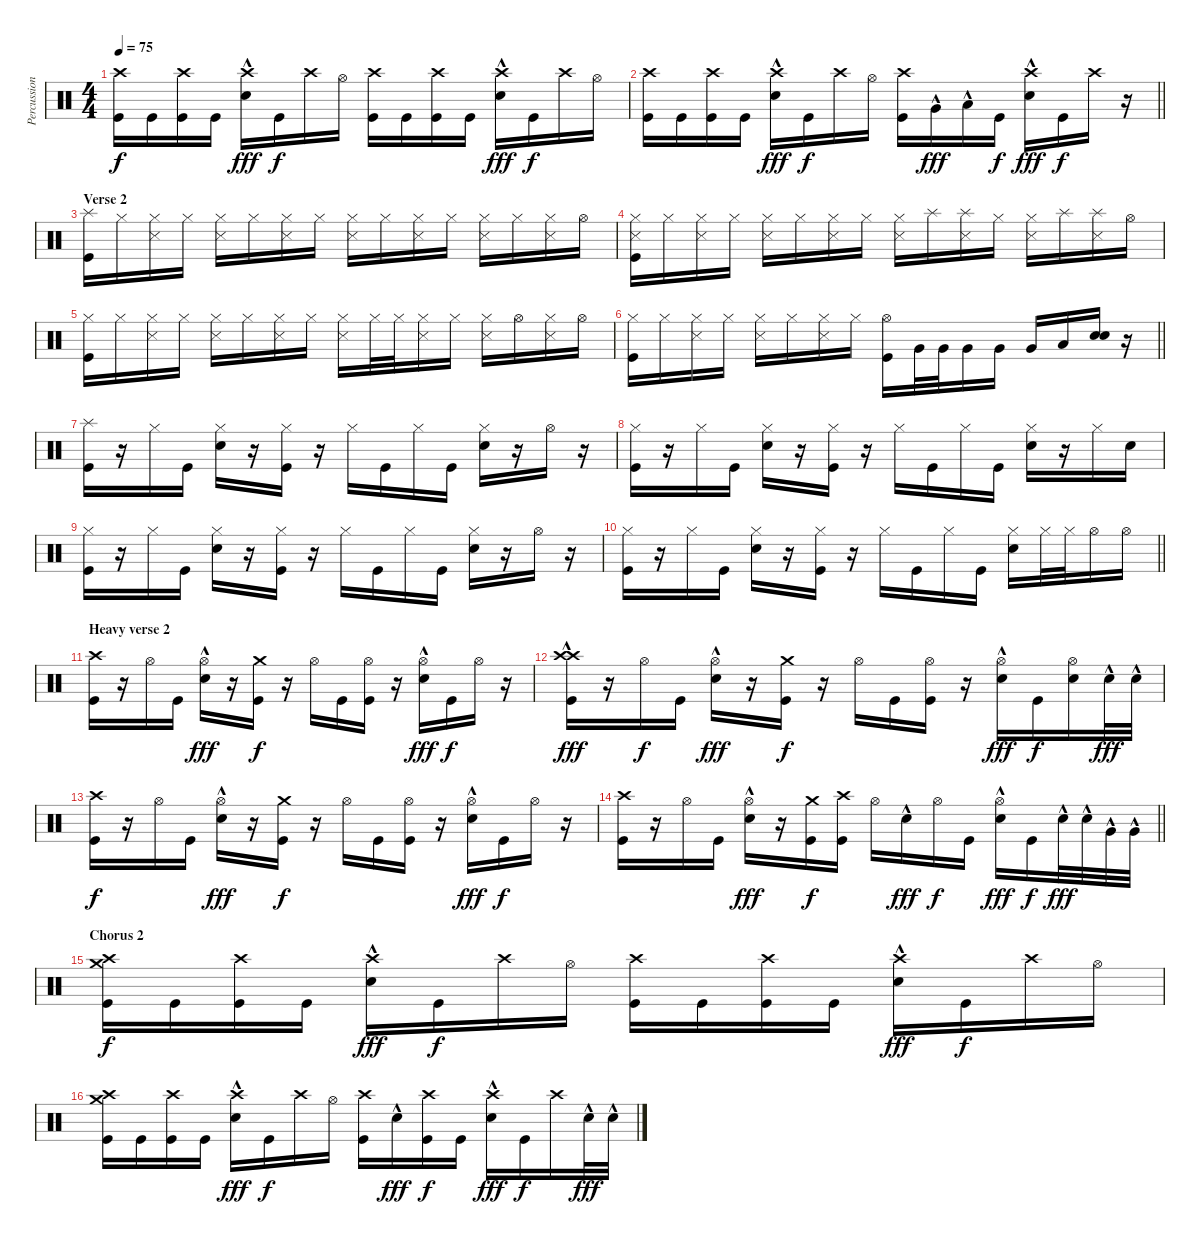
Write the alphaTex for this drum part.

\track ("Percussion" "Percussion") {instrument percussion}
\staff {score}
\articulation defaults
\ts (4 4)
\tempo 75
\clef neutral
\ks c
("Crash high (hit)" "Kick (hit)").16{dy f} "Kick (hit)".16 ("Crash high (hit)" "Kick (hit)").16 "Kick (hit)".16 ("Crash high (hit)" "Electric Snare (hit)"{hac}).16{dy fff} "Kick (hit)".16{dy f} "Crash high (hit)".16 "Hi-Hat (open)".16 ("Crash high (hit)" "Kick (hit)").16 "Kick (hit)".16 ("Crash high (hit)" "Kick (hit)").16 "Kick (hit)".16 ("Crash high (hit)" "Electric Snare (hit)"{hac}).16{dy fff} "Kick (hit)".16{dy f} "Crash high (hit)".16 "Hi-Hat (open)".16 |
\barLineRight lightlight
("Crash high (hit)" "Kick (hit)").16 "Kick (hit)".16 ("Crash high (hit)" "Kick (hit)").16 "Kick (hit)".16 ("Crash high (hit)" "Electric Snare (hit)"{hac}).16{dy fff} "Kick (hit)".16{dy f} "Crash high (hit)".16 "Hi-Hat (open)".16 ("Crash high (hit)" "Kick (hit)").16 "Very Low Tom (hit)"{hac}.16{dy fff} "Low Floor Tom (hit)"{hac}.16 "Kick (hit)".16{dy f} ("Crash high (hit)" "Electric Snare (hit)"{hac}).16{dy fff} "Kick (hit)".16{dy f} "Crash high (hit)".16 r.16 |
\section ("" "Verse 2")
("Splash (hit)" "Kick (hit)").16 "Hi-Hat (closed)".16 ("Hi-Hat (closed)" "Snare (side stick) 3").16 "Hi-Hat (closed)".16 ("Hi-Hat (closed)" "Snare (side stick) 3").16 "Hi-Hat (closed)".16 ("Hi-Hat (closed)" "Snare (side stick) 3").16 "Hi-Hat (closed)".16 ("Hi-Hat (closed)" "Snare (side stick) 3").16 "Hi-Hat (closed)".16 ("Hi-Hat (closed)" "Snare (side stick) 3").16 "Hi-Hat (closed)".16 ("Hi-Hat (closed)" "Snare (side stick) 3").16 "Hi-Hat (closed)".16 ("Hi-Hat (closed)" "Snare (side stick) 3").16 "Hi-Hat (open)".16 |
("Snare (side stick) 3" "Hi-Hat (closed)" "Kick (hit)").16 "Hi-Hat (closed)".16 ("Hi-Hat (closed)" "Snare (side stick) 3").16 "Hi-Hat (closed)".16 ("Hi-Hat (closed)" "Snare (side stick) 3").16 "Hi-Hat (closed)".16 ("Hi-Hat (closed)" "Snare (side stick) 3").16 "Hi-Hat (closed)".16 ("Hi-Hat (closed)" "Snare (side stick) 3").16 "Splash (hit)".16 ("Splash (hit)" "Snare (side stick) 3").16 "Hi-Hat (closed)".16 ("Hi-Hat (closed)" "Snare (side stick) 3").16 "Splash (hit)".16 ("Splash (hit)" "Snare (side stick) 3").16 "Hi-Hat (open)".16 |
("Hi-Hat (closed)" "Kick (hit)").16 "Hi-Hat (closed)".16 ("Hi-Hat (closed)" "Snare (side stick) 3").16 "Hi-Hat (closed)".16 ("Hi-Hat (closed)" "Snare (side stick) 3").16 "Hi-Hat (closed)".16 ("Hi-Hat (closed)" "Snare (side stick) 3").16 "Hi-Hat (closed)".16 ("Hi-Hat (closed)" "Snare (side stick) 3").16 "Hi-Hat (closed)".32 "Hi-Hat (closed)".32 ("Hi-Hat (closed)" "Snare (side stick) 3").16 "Hi-Hat (closed)".16 ("Hi-Hat (closed)" "Snare (side stick) 3").16 "Hi-Hat (open)".16 ("Hi-Hat (closed)" "Snare (side stick) 3").16 "Hi-Hat (open)".16 |
\barLineRight lightlight
("Hi-Hat (closed)" "Kick (hit)").16 "Hi-Hat (closed)".16 ("Hi-Hat (closed)" "Snare (side stick) 3").16 "Hi-Hat (closed)".16 ("Hi-Hat (closed)" "Snare (side stick) 3").16 "Hi-Hat (closed)".16 ("Hi-Hat (closed)" "Snare (side stick) 3").16 "Hi-Hat (closed)".16 ("Hi-Hat (open)" "Kick (hit)").16 "Very Low Tom (hit)".32 "Very Low Tom (hit)".32 "Very Low Tom (hit)".16 "Very Low Tom (hit)".16 "Very Low Tom (hit)".16 "Low Floor Tom (hit)".16 ("Electric Snare (hit)" "Electric Snare (hit)").16 r.16 |
("Splash (hit)" "Kick (hit)").16 r.16 "Hi-Hat (closed)".16 "Kick (hit)".16 ("Hi-Hat (closed)" "Electric Snare (hit)").16 r.16 ("Hi-Hat (closed)" "Kick (hit)").16 r.16 "Hi-Hat (closed)".16 "Kick (hit)".16 "Hi-Hat (closed)".16 "Kick (hit)".16 ("Hi-Hat (closed)" "Electric Snare (hit)").16 r.16 "Hi-Hat (open)".16 r.16 |
("Hi-Hat (closed)" "Kick (hit)").16 r.16 "Hi-Hat (closed)".16 "Kick (hit)".16 ("Hi-Hat (closed)" "Electric Snare (hit)").16 r.16 ("Hi-Hat (closed)" "Kick (hit)").16 r.16 "Hi-Hat (closed)".16 "Kick (hit)".16 "Hi-Hat (closed)".16 "Kick (hit)".16 ("Hi-Hat (closed)" "Electric Snare (hit)").16 r.16 "Hi-Hat (closed)".16 "Electric Snare (hit)".16 |
("Hi-Hat (closed)" "Kick (hit)").16 r.16 "Hi-Hat (closed)".16 "Kick (hit)".16 ("Hi-Hat (closed)" "Electric Snare (hit)").16 r.16 ("Hi-Hat (closed)" "Kick (hit)").16 r.16 "Hi-Hat (closed)".16 "Kick (hit)".16 "Hi-Hat (closed)".16 "Kick (hit)".16 ("Hi-Hat (closed)" "Electric Snare (hit)").16 r.16 "Hi-Hat (open)".16 r.16 |
\barLineRight lightlight
("Hi-Hat (closed)" "Kick (hit)").16 r.16 "Hi-Hat (closed)".16 "Kick (hit)".16 ("Hi-Hat (closed)" "Electric Snare (hit)").16 r.16 ("Hi-Hat (closed)" "Kick (hit)").16 r.16 "Hi-Hat (closed)".16 "Kick (hit)".16 "Hi-Hat (closed)".16 "Kick (hit)".16 ("Hi-Hat (closed)" "Electric Snare (hit)").16 "Hi-Hat (closed)".32 "Hi-Hat (closed)".32 "Hi-Hat (open)".16 "Hi-Hat (open)".16 |
\section ("" "Heavy verse 2")
("Crash high (hit)" "Kick (hit)").16 r.16 "Hi-Hat (open)".16 "Kick (hit)".16 ("Hi-Hat (open)" "Electric Snare (hit)"{hac}).16{dy fff} r.16 ("Crash medium (hit)" "Kick (hit)").16{dy f} r.16 "Hi-Hat (open)".16 "Kick (hit)".16 ("Hi-Hat (open)" "Kick (hit)").16 r.16 ("Hi-Hat (open)" "Electric Snare (hit)"{hac}).16{dy fff} "Kick (hit)".16{dy f} "Hi-Hat (open)".16 r.16 |
("Crash high (hit)" "Crash high (hit)"{hac} "Kick (hit)").16{dy fff} r.16 "Hi-Hat (open)".16{dy f} "Kick (hit)".16 ("Hi-Hat (open)" "Electric Snare (hit)"{hac}).16{dy fff} r.16 ("Crash medium (hit)" "Kick (hit)").16{dy f} r.16 "Hi-Hat (open)".16 "Kick (hit)".16 ("Hi-Hat (open)" "Kick (hit)").16 r.16 ("Hi-Hat (open)" "Electric Snare (hit)"{hac}).16{dy fff} "Kick (hit)".16{dy f} ("Hi-Hat (open)" "Electric Snare (hit)").16 "Electric Snare (hit)"{hac}.32{dy fff} "Electric Snare (hit)"{hac}.32 |
("Crash high (hit)" "Kick (hit)").16{dy f} r.16 "Hi-Hat (open)".16 "Kick (hit)".16 ("Hi-Hat (open)" "Electric Snare (hit)"{hac}).16{dy fff} r.16 ("Crash medium (hit)" "Kick (hit)").16{dy f} r.16 "Hi-Hat (open)".16 "Kick (hit)".16 ("Hi-Hat (open)" "Kick (hit)").16 r.16 ("Hi-Hat (open)" "Electric Snare (hit)"{hac}).16{dy fff} "Kick (hit)".16{dy f} "Hi-Hat (open)".16 r.16 |
\barLineRight lightlight
("Crash high (hit)" "Kick (hit)").16 r.16 "Hi-Hat (open)".16 "Kick (hit)".16 ("Hi-Hat (open)" "Electric Snare (hit)"{hac}).16{dy fff} r.16 ("Crash medium (hit)" "Kick (hit)").16{dy f} ("Crash high (hit)" "Kick (hit)").16 "Hi-Hat (open)".16 "Electric Snare (hit)"{hac}.16{dy fff} "Hi-Hat (open)".16{dy f} "Kick (hit)".16 ("Hi-Hat (open)" "Electric Snare (hit)"{hac}).16{dy fff} "Kick (hit)".16{dy f} "Electric Snare (hit)"{hac}.32{dy fff} "Electric Snare (hit)"{hac}.32 "Very Low Tom (hit)"{hac}.32 "Very Low Tom (hit)"{hac}.32 |
\section ("" "Chorus 2")
("Crash medium (hit)" "Crash high (hit)" "Kick (hit)").16{dy f} "Kick (hit)".16 ("Crash high (hit)" "Kick (hit)").16 "Kick (hit)".16 ("Crash high (hit)" "Electric Snare (hit)"{hac}).16{dy fff} "Kick (hit)".16{dy f} "Crash high (hit)".16 "Hi-Hat (open)".16 ("Crash high (hit)" "Kick (hit)").16 "Kick (hit)".16 ("Crash high (hit)" "Kick (hit)").16 "Kick (hit)".16 ("Crash high (hit)" "Electric Snare (hit)"{hac}).16{dy fff} "Kick (hit)".16{dy f} "Crash high (hit)".16 "Hi-Hat (open)".16 |
("Crash medium (hit)" "Crash high (hit)" "Kick (hit)").16 "Kick (hit)".16 ("Crash high (hit)" "Kick (hit)").16 "Kick (hit)".16 ("Crash high (hit)" "Electric Snare (hit)"{hac}).16{dy fff} "Kick (hit)".16{dy f} "Crash high (hit)".16 "Hi-Hat (open)".16 ("Crash high (hit)" "Kick (hit)").16 "Electric Snare (hit)"{hac}.16{dy fff} ("Crash high (hit)" "Kick (hit)").16{dy f} "Kick (hit)".16 ("Crash high (hit)" "Electric Snare (hit)"{hac}).16{dy fff} "Kick (hit)".16{dy f} "Crash high (hit)".16 "Electric Snare (hit)"{hac}.32{dy fff} "Electric Snare (hit)"{hac}.32
